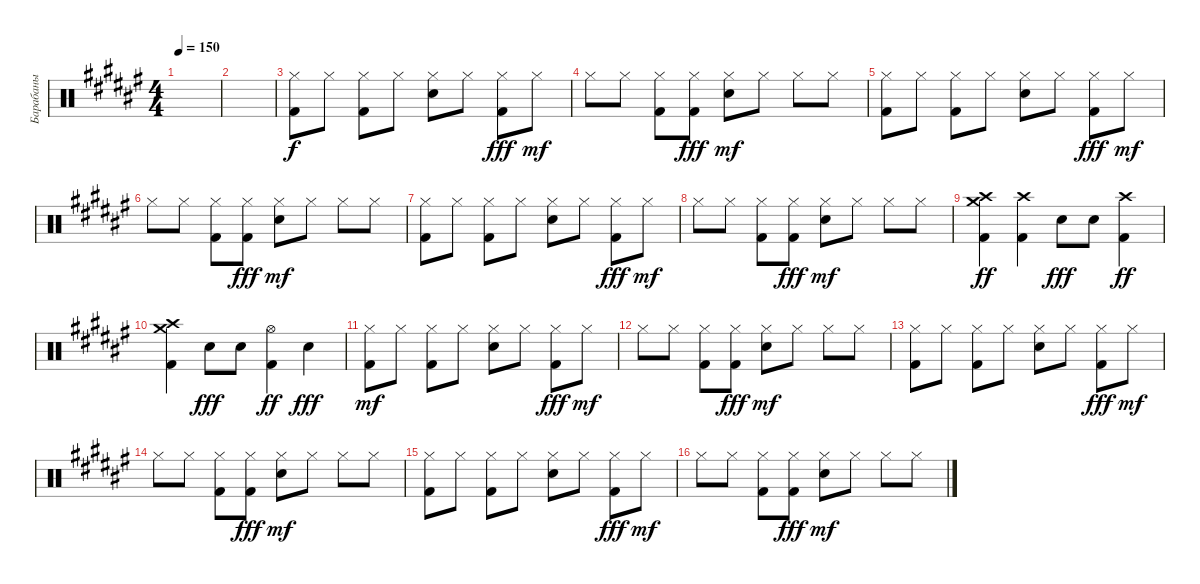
\track ("Барабаны" "Барабаны") {instrument percussion}
\staff {score}
\articulation defaults
\ts (4 4)
\tempo 150
\clef neutral
\ks d#minor
|
|
("Kick (hit) 2" "Hi-Hat (closed)").8 "Hi-Hat (closed)".8 ("Kick (hit) 2" "Hi-Hat (closed)").8 "Hi-Hat (closed)".8 ("Electric Snare (hit)" "Hi-Hat (closed)").8 "Hi-Hat (closed)".8 ("Hi-Hat (closed)" "Kick (hit) 2").8{dy fff} "Hi-Hat (closed)".8{dy mf} |
"Hi-Hat (closed)".8 "Hi-Hat (closed)".8 ("Kick (hit) 2" "Hi-Hat (closed)").8 ("Hi-Hat (closed)" "Kick (hit) 2").8{dy fff} ("Electric Snare (hit)" "Hi-Hat (closed)").8{dy mf} "Hi-Hat (closed)".8 "Hi-Hat (closed)".8 "Hi-Hat (closed)".8 |
("Kick (hit) 2" "Hi-Hat (closed)").8 "Hi-Hat (closed)".8 ("Kick (hit) 2" "Hi-Hat (closed)").8 "Hi-Hat (closed)".8 ("Electric Snare (hit)" "Hi-Hat (closed)").8 "Hi-Hat (closed)".8 ("Hi-Hat (closed)" "Kick (hit) 2").8{dy fff} "Hi-Hat (closed)".8{dy mf} |
"Hi-Hat (closed)".8 "Hi-Hat (closed)".8 ("Kick (hit) 2" "Hi-Hat (closed)").8 ("Hi-Hat (closed)" "Kick (hit) 2").8{dy fff} ("Electric Snare (hit)" "Hi-Hat (closed)").8{dy mf} "Hi-Hat (closed)".8 "Hi-Hat (closed)".8 "Hi-Hat (closed)".8 |
("Kick (hit) 2" "Hi-Hat (closed)").8 "Hi-Hat (closed)".8 ("Kick (hit) 2" "Hi-Hat (closed)").8 "Hi-Hat (closed)".8 ("Electric Snare (hit)" "Hi-Hat (closed)").8 "Hi-Hat (closed)".8 ("Hi-Hat (closed)" "Kick (hit) 2").8{dy fff} "Hi-Hat (closed)".8{dy mf} |
"Hi-Hat (closed)".8 "Hi-Hat (closed)".8 ("Kick (hit) 2" "Hi-Hat (closed)").8 ("Hi-Hat (closed)" "Kick (hit) 2").8{dy fff} ("Electric Snare (hit)" "Hi-Hat (closed)").8{dy mf} "Hi-Hat (closed)".8 "Hi-Hat (closed)".8 "Hi-Hat (closed)".8 |
("Kick (hit) 2" "Crash high (hit)" "Crash medium (hit)").4{dy ff} ("Kick (hit) 2" "Crash high (hit)").4 "Electric Snare (hit)".8{dy fff} "Electric Snare (hit)".8 ("Kick (hit) 2" "Crash high (hit)").4{dy ff} |
("Kick (hit) 2" "Crash high (hit)" "Crash medium (hit)").4 "Electric Snare (hit)".8{dy fff} "Electric Snare (hit)".8 ("Kick (hit) 2" "Hi-Hat (open)").4{dy ff} "Electric Snare (hit)".4{dy fff} |
("Kick (hit) 2" "Hi-Hat (closed)").8{dy mf} "Hi-Hat (closed)".8 ("Kick (hit) 2" "Hi-Hat (closed)").8 "Hi-Hat (closed)".8 ("Electric Snare (hit)" "Hi-Hat (closed)").8 "Hi-Hat (closed)".8 ("Hi-Hat (closed)" "Kick (hit) 2").8{dy fff} "Hi-Hat (closed)".8{dy mf} |
"Hi-Hat (closed)".8 "Hi-Hat (closed)".8 ("Kick (hit) 2" "Hi-Hat (closed)").8 ("Hi-Hat (closed)" "Kick (hit) 2").8{dy fff} ("Electric Snare (hit)" "Hi-Hat (closed)").8{dy mf} "Hi-Hat (closed)".8 "Hi-Hat (closed)".8 "Hi-Hat (closed)".8 |
("Kick (hit) 2" "Hi-Hat (closed)").8 "Hi-Hat (closed)".8 ("Kick (hit) 2" "Hi-Hat (closed)").8 "Hi-Hat (closed)".8 ("Electric Snare (hit)" "Hi-Hat (closed)").8 "Hi-Hat (closed)".8 ("Hi-Hat (closed)" "Kick (hit) 2").8{dy fff} "Hi-Hat (closed)".8{dy mf} |
"Hi-Hat (closed)".8 "Hi-Hat (closed)".8 ("Kick (hit) 2" "Hi-Hat (closed)").8 ("Hi-Hat (closed)" "Kick (hit) 2").8{dy fff} ("Electric Snare (hit)" "Hi-Hat (closed)").8{dy mf} "Hi-Hat (closed)".8 "Hi-Hat (closed)".8 "Hi-Hat (closed)".8 |
("Kick (hit) 2" "Hi-Hat (closed)").8 "Hi-Hat (closed)".8 ("Kick (hit) 2" "Hi-Hat (closed)").8 "Hi-Hat (closed)".8 ("Electric Snare (hit)" "Hi-Hat (closed)").8 "Hi-Hat (closed)".8 ("Hi-Hat (closed)" "Kick (hit) 2").8{dy fff} "Hi-Hat (closed)".8{dy mf} |
"Hi-Hat (closed)".8 "Hi-Hat (closed)".8 ("Kick (hit) 2" "Hi-Hat (closed)").8 ("Hi-Hat (closed)" "Kick (hit) 2").8{dy fff} ("Electric Snare (hit)" "Hi-Hat (closed)").8{dy mf} "Hi-Hat (closed)".8 "Hi-Hat (closed)".8 "Hi-Hat (closed)".8
